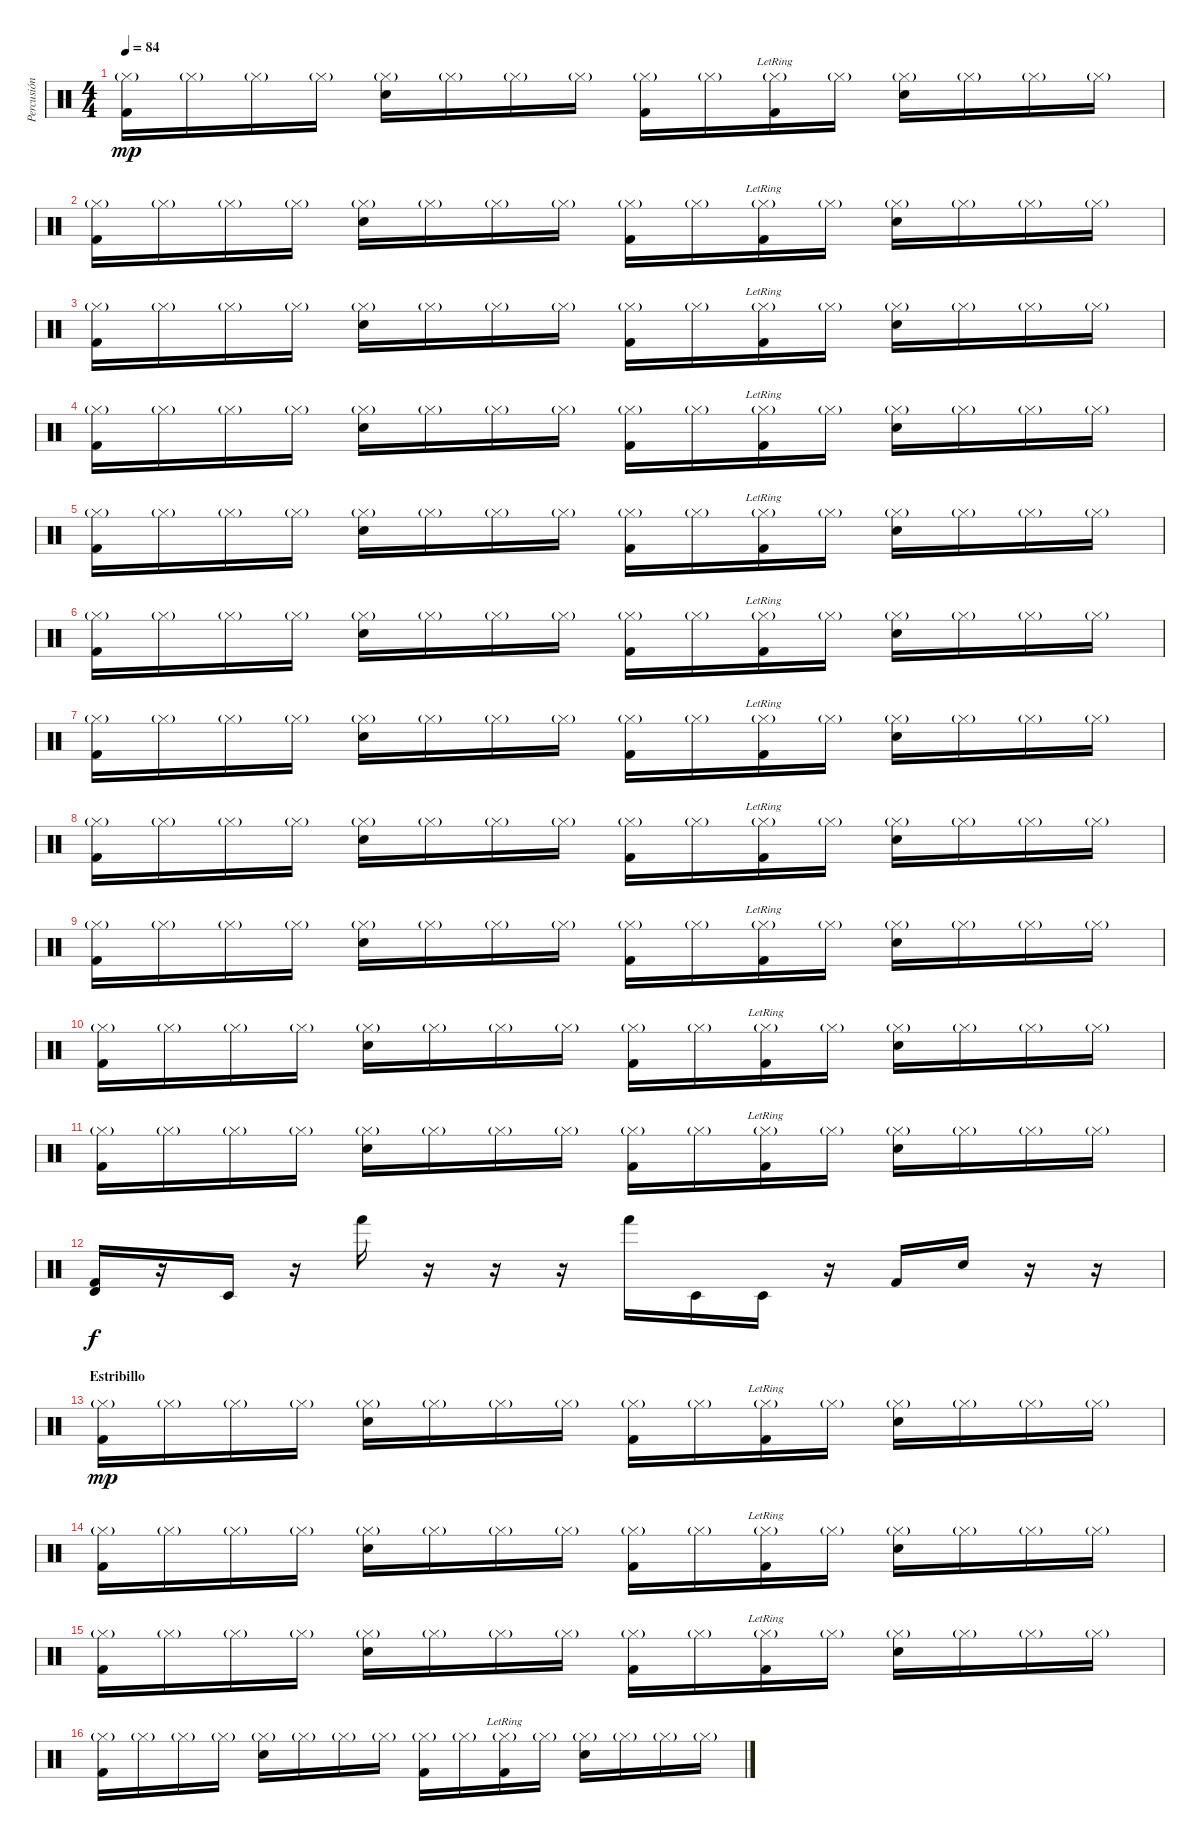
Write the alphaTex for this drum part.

\track ("Percusión 2" "Percusión ") {instrument percussion}
\staff {score}
\articulation defaults
\ts (4 4)
\tempo 84
\clef neutral
\ks c
("Hi-Hat (closed)"{g} "Kick (hit) 2").16{dy mp} "Hi-Hat (closed)"{g}.16 "Hi-Hat (closed)"{g}.16 "Hi-Hat (closed)"{g}.16 ("Hi-Hat (closed)"{g} "Snare (hit) 2").16 "Hi-Hat (closed)"{g}.16 "Hi-Hat (closed)"{g}.16 "Hi-Hat (closed)"{g}.16 ("Hi-Hat (closed)"{g} "Kick (hit) 2").16 "Hi-Hat (closed)"{g}.16 ("Hi-Hat (closed)"{g} "Kick (hit) 2"{lr}).16 "Hi-Hat (closed)"{g}.16 ("Hi-Hat (closed)"{g} "Snare (hit) 2").16 "Hi-Hat (closed)"{g}.16 "Hi-Hat (closed)"{g}.16 "Hi-Hat (closed)"{g}.16 |
("Hi-Hat (closed)"{g} "Kick (hit) 2").16 "Hi-Hat (closed)"{g}.16 "Hi-Hat (closed)"{g}.16 "Hi-Hat (closed)"{g}.16 ("Hi-Hat (closed)"{g} "Snare (hit) 2").16 "Hi-Hat (closed)"{g}.16 "Hi-Hat (closed)"{g}.16 "Hi-Hat (closed)"{g}.16 ("Hi-Hat (closed)"{g} "Kick (hit) 2").16 "Hi-Hat (closed)"{g}.16 ("Hi-Hat (closed)"{g} "Kick (hit) 2"{lr}).16 "Hi-Hat (closed)"{g}.16 ("Hi-Hat (closed)"{g} "Snare (hit) 2").16 "Hi-Hat (closed)"{g}.16 "Hi-Hat (closed)"{g}.16 "Hi-Hat (closed)"{g}.16 |
("Hi-Hat (closed)"{g} "Kick (hit) 2").16 "Hi-Hat (closed)"{g}.16 "Hi-Hat (closed)"{g}.16 "Hi-Hat (closed)"{g}.16 ("Hi-Hat (closed)"{g} "Snare (hit) 2").16 "Hi-Hat (closed)"{g}.16 "Hi-Hat (closed)"{g}.16 "Hi-Hat (closed)"{g}.16 ("Hi-Hat (closed)"{g} "Kick (hit) 2").16 "Hi-Hat (closed)"{g}.16 ("Hi-Hat (closed)"{g} "Kick (hit) 2"{lr}).16 "Hi-Hat (closed)"{g}.16 ("Hi-Hat (closed)"{g} "Snare (hit) 2").16 "Hi-Hat (closed)"{g}.16 "Hi-Hat (closed)"{g}.16 "Hi-Hat (closed)"{g}.16 |
("Hi-Hat (closed)"{g} "Kick (hit) 2").16 "Hi-Hat (closed)"{g}.16 "Hi-Hat (closed)"{g}.16 "Hi-Hat (closed)"{g}.16 ("Hi-Hat (closed)"{g} "Snare (hit) 2").16 "Hi-Hat (closed)"{g}.16 "Hi-Hat (closed)"{g}.16 "Hi-Hat (closed)"{g}.16 ("Hi-Hat (closed)"{g} "Kick (hit) 2").16 "Hi-Hat (closed)"{g}.16 ("Hi-Hat (closed)"{g} "Kick (hit) 2"{lr}).16 "Hi-Hat (closed)"{g}.16 ("Hi-Hat (closed)"{g} "Snare (hit) 2").16 "Hi-Hat (closed)"{g}.16 "Hi-Hat (closed)"{g}.16 "Hi-Hat (closed)"{g}.16 |
("Hi-Hat (closed)"{g} "Kick (hit) 2").16 "Hi-Hat (closed)"{g}.16 "Hi-Hat (closed)"{g}.16 "Hi-Hat (closed)"{g}.16 ("Hi-Hat (closed)"{g} "Snare (hit) 2").16 "Hi-Hat (closed)"{g}.16 "Hi-Hat (closed)"{g}.16 "Hi-Hat (closed)"{g}.16 ("Hi-Hat (closed)"{g} "Kick (hit) 2").16 "Hi-Hat (closed)"{g}.16 ("Hi-Hat (closed)"{g} "Kick (hit) 2"{lr}).16 "Hi-Hat (closed)"{g}.16 ("Hi-Hat (closed)"{g} "Snare (hit) 2").16 "Hi-Hat (closed)"{g}.16 "Hi-Hat (closed)"{g}.16 "Hi-Hat (closed)"{g}.16 |
("Hi-Hat (closed)"{g} "Kick (hit) 2").16 "Hi-Hat (closed)"{g}.16 "Hi-Hat (closed)"{g}.16 "Hi-Hat (closed)"{g}.16 ("Hi-Hat (closed)"{g} "Snare (hit) 2").16 "Hi-Hat (closed)"{g}.16 "Hi-Hat (closed)"{g}.16 "Hi-Hat (closed)"{g}.16 ("Hi-Hat (closed)"{g} "Kick (hit) 2").16 "Hi-Hat (closed)"{g}.16 ("Hi-Hat (closed)"{g} "Kick (hit) 2"{lr}).16 "Hi-Hat (closed)"{g}.16 ("Hi-Hat (closed)"{g} "Snare (hit) 2").16 "Hi-Hat (closed)"{g}.16 "Hi-Hat (closed)"{g}.16 "Hi-Hat (closed)"{g}.16 |
("Hi-Hat (closed)"{g} "Kick (hit) 2").16 "Hi-Hat (closed)"{g}.16 "Hi-Hat (closed)"{g}.16 "Hi-Hat (closed)"{g}.16 ("Hi-Hat (closed)"{g} "Snare (hit) 2").16 "Hi-Hat (closed)"{g}.16 "Hi-Hat (closed)"{g}.16 "Hi-Hat (closed)"{g}.16 ("Hi-Hat (closed)"{g} "Kick (hit) 2").16 "Hi-Hat (closed)"{g}.16 ("Hi-Hat (closed)"{g} "Kick (hit) 2"{lr}).16 "Hi-Hat (closed)"{g}.16 ("Hi-Hat (closed)"{g} "Snare (hit) 2").16 "Hi-Hat (closed)"{g}.16 "Hi-Hat (closed)"{g}.16 "Hi-Hat (closed)"{g}.16 |
("Hi-Hat (closed)"{g} "Kick (hit) 2").16 "Hi-Hat (closed)"{g}.16 "Hi-Hat (closed)"{g}.16 "Hi-Hat (closed)"{g}.16 ("Hi-Hat (closed)"{g} "Snare (hit) 2").16 "Hi-Hat (closed)"{g}.16 "Hi-Hat (closed)"{g}.16 "Hi-Hat (closed)"{g}.16 ("Hi-Hat (closed)"{g} "Kick (hit) 2").16 "Hi-Hat (closed)"{g}.16 ("Hi-Hat (closed)"{g} "Kick (hit) 2"{lr}).16 "Hi-Hat (closed)"{g}.16 ("Hi-Hat (closed)"{g} "Snare (hit) 2").16 "Hi-Hat (closed)"{g}.16 "Hi-Hat (closed)"{g}.16 "Hi-Hat (closed)"{g}.16 |
("Hi-Hat (closed)"{g} "Kick (hit) 2").16 "Hi-Hat (closed)"{g}.16 "Hi-Hat (closed)"{g}.16 "Hi-Hat (closed)"{g}.16 ("Hi-Hat (closed)"{g} "Snare (hit) 2").16 "Hi-Hat (closed)"{g}.16 "Hi-Hat (closed)"{g}.16 "Hi-Hat (closed)"{g}.16 ("Hi-Hat (closed)"{g} "Kick (hit) 2").16 "Hi-Hat (closed)"{g}.16 ("Hi-Hat (closed)"{g} "Kick (hit) 2"{lr}).16 "Hi-Hat (closed)"{g}.16 ("Hi-Hat (closed)"{g} "Snare (hit) 2").16 "Hi-Hat (closed)"{g}.16 "Hi-Hat (closed)"{g}.16 "Hi-Hat (closed)"{g}.16 |
("Hi-Hat (closed)"{g} "Kick (hit) 2").16 "Hi-Hat (closed)"{g}.16 "Hi-Hat (closed)"{g}.16 "Hi-Hat (closed)"{g}.16 ("Hi-Hat (closed)"{g} "Snare (hit) 2").16 "Hi-Hat (closed)"{g}.16 "Hi-Hat (closed)"{g}.16 "Hi-Hat (closed)"{g}.16 ("Hi-Hat (closed)"{g} "Kick (hit) 2").16 "Hi-Hat (closed)"{g}.16 ("Hi-Hat (closed)"{g} "Kick (hit) 2"{lr}).16 "Hi-Hat (closed)"{g}.16 ("Hi-Hat (closed)"{g} "Snare (hit) 2").16 "Hi-Hat (closed)"{g}.16 "Hi-Hat (closed)"{g}.16 "Hi-Hat (closed)"{g}.16 |
("Hi-Hat (closed)"{g} "Kick (hit) 2").16 "Hi-Hat (closed)"{g}.16 "Hi-Hat (closed)"{g}.16 "Hi-Hat (closed)"{g}.16 ("Hi-Hat (closed)"{g} "Snare (hit) 2").16 "Hi-Hat (closed)"{g}.16 "Hi-Hat (closed)"{g}.16 "Hi-Hat (closed)"{g}.16 ("Hi-Hat (closed)"{g} "Kick (hit) 2").16 "Hi-Hat (closed)"{g}.16 ("Hi-Hat (closed)"{g} "Kick (hit) 2"{lr}).16 "Hi-Hat (closed)"{g}.16 ("Hi-Hat (closed)"{g} "Snare (hit) 2").16 "Hi-Hat (closed)"{g}.16 "Hi-Hat (closed)"{g}.16 "Hi-Hat (closed)"{g}.16 |
("Timbale high (hit)" "Kick (hit) 2").16{dy f} r.16 "Timbale low (hit)".16 r.16 "Hand (hit)".16 r.16 r.16 r.16 "Hand (hit)".16 "Timbale low (hit)".16 "Timbale low (hit)".16 r.16 "Kick (hit) 2".16 "Snare (hit) 2".16 r.16 r.16 |
\section ("" "Estribillo")
("Hi-Hat (closed)"{g} "Kick (hit) 2").16{dy mp} "Hi-Hat (closed)"{g}.16 "Hi-Hat (closed)"{g}.16 "Hi-Hat (closed)"{g}.16 ("Hi-Hat (closed)"{g} "Snare (hit) 2").16 "Hi-Hat (closed)"{g}.16 "Hi-Hat (closed)"{g}.16 "Hi-Hat (closed)"{g}.16 ("Hi-Hat (closed)"{g} "Kick (hit) 2").16 "Hi-Hat (closed)"{g}.16 ("Hi-Hat (closed)"{g} "Kick (hit) 2"{lr}).16 "Hi-Hat (closed)"{g}.16 ("Hi-Hat (closed)"{g} "Snare (hit) 2").16 "Hi-Hat (closed)"{g}.16 "Hi-Hat (closed)"{g}.16 "Hi-Hat (closed)"{g}.16 |
("Hi-Hat (closed)"{g} "Kick (hit) 2").16 "Hi-Hat (closed)"{g}.16 "Hi-Hat (closed)"{g}.16 "Hi-Hat (closed)"{g}.16 ("Hi-Hat (closed)"{g} "Snare (hit) 2").16 "Hi-Hat (closed)"{g}.16 "Hi-Hat (closed)"{g}.16 "Hi-Hat (closed)"{g}.16 ("Hi-Hat (closed)"{g} "Kick (hit) 2").16 "Hi-Hat (closed)"{g}.16 ("Hi-Hat (closed)"{g} "Kick (hit) 2"{lr}).16 "Hi-Hat (closed)"{g}.16 ("Hi-Hat (closed)"{g} "Snare (hit) 2").16 "Hi-Hat (closed)"{g}.16 "Hi-Hat (closed)"{g}.16 "Hi-Hat (closed)"{g}.16 |
("Hi-Hat (closed)"{g} "Kick (hit) 2").16 "Hi-Hat (closed)"{g}.16 "Hi-Hat (closed)"{g}.16 "Hi-Hat (closed)"{g}.16 ("Hi-Hat (closed)"{g} "Snare (hit) 2").16 "Hi-Hat (closed)"{g}.16 "Hi-Hat (closed)"{g}.16 "Hi-Hat (closed)"{g}.16 ("Hi-Hat (closed)"{g} "Kick (hit) 2").16 "Hi-Hat (closed)"{g}.16 ("Hi-Hat (closed)"{g} "Kick (hit) 2"{lr}).16 "Hi-Hat (closed)"{g}.16 ("Hi-Hat (closed)"{g} "Snare (hit) 2").16 "Hi-Hat (closed)"{g}.16 "Hi-Hat (closed)"{g}.16 "Hi-Hat (closed)"{g}.16 |
("Hi-Hat (closed)"{g} "Kick (hit) 2").16 "Hi-Hat (closed)"{g}.16 "Hi-Hat (closed)"{g}.16 "Hi-Hat (closed)"{g}.16 ("Hi-Hat (closed)"{g} "Snare (hit) 2").16 "Hi-Hat (closed)"{g}.16 "Hi-Hat (closed)"{g}.16 "Hi-Hat (closed)"{g}.16 ("Hi-Hat (closed)"{g} "Kick (hit) 2").16 "Hi-Hat (closed)"{g}.16 ("Hi-Hat (closed)"{g} "Kick (hit) 2"{lr}).16 "Hi-Hat (closed)"{g}.16 ("Hi-Hat (closed)"{g} "Snare (hit) 2").16 "Hi-Hat (closed)"{g}.16 "Hi-Hat (closed)"{g}.16 "Hi-Hat (closed)"{g}.16
